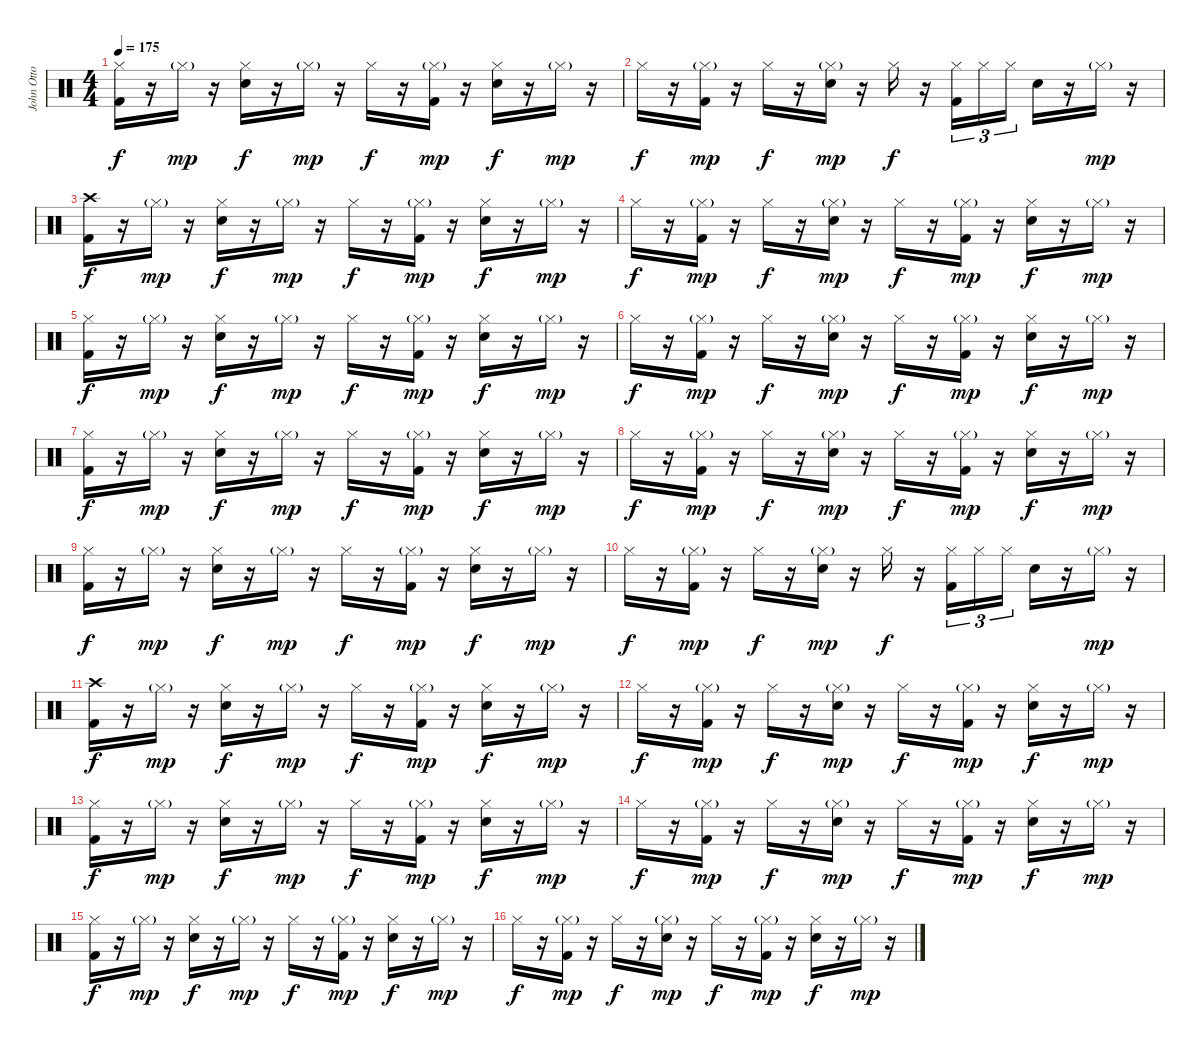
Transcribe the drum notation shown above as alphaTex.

\track ("John Otto" "John Otto") {instrument percussion}
\staff {score}
\articulation defaults
\ts (4 4)
\tempo 175
\clef neutral
\ks c
("Hi-Hat (closed)" "Kick (hit) 2").16{dy f} r.16 "Hi-Hat (closed)"{g}.16{dy mp} r.16 ("Hi-Hat (closed)" "Snare (hit) 2").16{dy f} r.16 "Hi-Hat (closed)"{g}.16{dy mp} r.16 "Hi-Hat (closed)".16{dy f} r.16 ("Hi-Hat (closed)"{g} "Kick (hit) 2").16{dy mp} r.16 ("Hi-Hat (closed)" "Snare (hit) 2").16{dy f} r.16 "Hi-Hat (closed)"{g}.16{dy mp} r.16 |
"Hi-Hat (closed)".16{dy f} r.16 ("Hi-Hat (closed)"{g} "Kick (hit) 2").16{dy mp} r.16 "Hi-Hat (closed)".16{dy f} r.16 ("Hi-Hat (closed)"{g} "Snare (hit) 2").16{dy mp} r.16 "Hi-Hat (closed)".16{dy f} r.16 ("Hi-Hat (closed)" "Kick (hit) 2").16{tu (3 2)} "Hi-Hat (closed)".16{tu (3 2)} "Hi-Hat (closed)".16{tu (3 2)} "Snare (hit) 2".16 r.16 "Hi-Hat (closed)"{g}.16{dy mp} r.16 |
("Crash high (hit)" "Kick (hit) 2").16{dy f} r.16 "Hi-Hat (closed)"{g}.16{dy mp} r.16 ("Hi-Hat (closed)" "Snare (hit) 2").16{dy f} r.16 "Hi-Hat (closed)"{g}.16{dy mp} r.16 "Hi-Hat (closed)".16{dy f} r.16 ("Hi-Hat (closed)"{g} "Kick (hit) 2").16{dy mp} r.16 ("Hi-Hat (closed)" "Snare (hit) 2").16{dy f} r.16 "Hi-Hat (closed)"{g}.16{dy mp} r.16 |
"Hi-Hat (closed)".16{dy f} r.16 ("Hi-Hat (closed)"{g} "Kick (hit) 2").16{dy mp} r.16 "Hi-Hat (closed)".16{dy f} r.16 ("Hi-Hat (closed)"{g} "Snare (hit) 2").16{dy mp} r.16 "Hi-Hat (closed)".16{dy f} r.16 ("Hi-Hat (closed)"{g} "Kick (hit) 2").16{dy mp} r.16 ("Hi-Hat (closed)" "Snare (hit) 2").16{dy f} r.16 "Hi-Hat (closed)"{g}.16{dy mp} r.16 |
("Hi-Hat (closed)" "Kick (hit) 2").16{dy f} r.16 "Hi-Hat (closed)"{g}.16{dy mp} r.16 ("Hi-Hat (closed)" "Snare (hit) 2").16{dy f} r.16 "Hi-Hat (closed)"{g}.16{dy mp} r.16 "Hi-Hat (closed)".16{dy f} r.16 ("Hi-Hat (closed)"{g} "Kick (hit) 2").16{dy mp} r.16 ("Hi-Hat (closed)" "Snare (hit) 2").16{dy f} r.16 "Hi-Hat (closed)"{g}.16{dy mp} r.16 |
"Hi-Hat (closed)".16{dy f} r.16 ("Hi-Hat (closed)"{g} "Kick (hit) 2").16{dy mp} r.16 "Hi-Hat (closed)".16{dy f} r.16 ("Hi-Hat (closed)"{g} "Snare (hit) 2").16{dy mp} r.16 "Hi-Hat (closed)".16{dy f} r.16 ("Hi-Hat (closed)"{g} "Kick (hit) 2").16{dy mp} r.16 ("Hi-Hat (closed)" "Snare (hit) 2").16{dy f} r.16 "Hi-Hat (closed)"{g}.16{dy mp} r.16 |
("Hi-Hat (closed)" "Kick (hit) 2").16{dy f} r.16 "Hi-Hat (closed)"{g}.16{dy mp} r.16 ("Hi-Hat (closed)" "Snare (hit) 2").16{dy f} r.16 "Hi-Hat (closed)"{g}.16{dy mp} r.16 "Hi-Hat (closed)".16{dy f} r.16 ("Hi-Hat (closed)"{g} "Kick (hit) 2").16{dy mp} r.16 ("Hi-Hat (closed)" "Snare (hit) 2").16{dy f} r.16 "Hi-Hat (closed)"{g}.16{dy mp} r.16 |
"Hi-Hat (closed)".16{dy f} r.16 ("Hi-Hat (closed)"{g} "Kick (hit) 2").16{dy mp} r.16 "Hi-Hat (closed)".16{dy f} r.16 ("Hi-Hat (closed)"{g} "Snare (hit) 2").16{dy mp} r.16 "Hi-Hat (closed)".16{dy f} r.16 ("Hi-Hat (closed)"{g} "Kick (hit) 2").16{dy mp} r.16 ("Hi-Hat (closed)" "Snare (hit) 2").16{dy f} r.16 "Hi-Hat (closed)"{g}.16{dy mp} r.16 |
("Hi-Hat (closed)" "Kick (hit) 2").16{dy f} r.16 "Hi-Hat (closed)"{g}.16{dy mp} r.16 ("Hi-Hat (closed)" "Snare (hit) 2").16{dy f} r.16 "Hi-Hat (closed)"{g}.16{dy mp} r.16 "Hi-Hat (closed)".16{dy f} r.16 ("Hi-Hat (closed)"{g} "Kick (hit) 2").16{dy mp} r.16 ("Hi-Hat (closed)" "Snare (hit) 2").16{dy f} r.16 "Hi-Hat (closed)"{g}.16{dy mp} r.16 |
"Hi-Hat (closed)".16{dy f} r.16 ("Hi-Hat (closed)"{g} "Kick (hit) 2").16{dy mp} r.16 "Hi-Hat (closed)".16{dy f} r.16 ("Hi-Hat (closed)"{g} "Snare (hit) 2").16{dy mp} r.16 "Hi-Hat (closed)".16{dy f} r.16 ("Hi-Hat (closed)" "Kick (hit) 2").16{tu (3 2)} "Hi-Hat (closed)".16{tu (3 2)} "Hi-Hat (closed)".16{tu (3 2)} "Snare (hit) 2".16 r.16 "Hi-Hat (closed)"{g}.16{dy mp} r.16 |
("Crash high (hit)" "Kick (hit) 2").16{dy f} r.16 "Hi-Hat (closed)"{g}.16{dy mp} r.16 ("Hi-Hat (closed)" "Snare (hit) 2").16{dy f} r.16 "Hi-Hat (closed)"{g}.16{dy mp} r.16 "Hi-Hat (closed)".16{dy f} r.16 ("Hi-Hat (closed)"{g} "Kick (hit) 2").16{dy mp} r.16 ("Hi-Hat (closed)" "Snare (hit) 2").16{dy f} r.16 "Hi-Hat (closed)"{g}.16{dy mp} r.16 |
"Hi-Hat (closed)".16{dy f} r.16 ("Hi-Hat (closed)"{g} "Kick (hit) 2").16{dy mp} r.16 "Hi-Hat (closed)".16{dy f} r.16 ("Hi-Hat (closed)"{g} "Snare (hit) 2").16{dy mp} r.16 "Hi-Hat (closed)".16{dy f} r.16 ("Hi-Hat (closed)"{g} "Kick (hit) 2").16{dy mp} r.16 ("Hi-Hat (closed)" "Snare (hit) 2").16{dy f} r.16 "Hi-Hat (closed)"{g}.16{dy mp} r.16 |
("Hi-Hat (closed)" "Kick (hit) 2").16{dy f} r.16 "Hi-Hat (closed)"{g}.16{dy mp} r.16 ("Hi-Hat (closed)" "Snare (hit) 2").16{dy f} r.16 "Hi-Hat (closed)"{g}.16{dy mp} r.16 "Hi-Hat (closed)".16{dy f} r.16 ("Hi-Hat (closed)"{g} "Kick (hit) 2").16{dy mp} r.16 ("Hi-Hat (closed)" "Snare (hit) 2").16{dy f} r.16 "Hi-Hat (closed)"{g}.16{dy mp} r.16 |
"Hi-Hat (closed)".16{dy f} r.16 ("Hi-Hat (closed)"{g} "Kick (hit) 2").16{dy mp} r.16 "Hi-Hat (closed)".16{dy f} r.16 ("Hi-Hat (closed)"{g} "Snare (hit) 2").16{dy mp} r.16 "Hi-Hat (closed)".16{dy f} r.16 ("Hi-Hat (closed)"{g} "Kick (hit) 2").16{dy mp} r.16 ("Hi-Hat (closed)" "Snare (hit) 2").16{dy f} r.16 "Hi-Hat (closed)"{g}.16{dy mp} r.16 |
("Hi-Hat (closed)" "Kick (hit) 2").16{dy f} r.16 "Hi-Hat (closed)"{g}.16{dy mp} r.16 ("Hi-Hat (closed)" "Snare (hit) 2").16{dy f} r.16 "Hi-Hat (closed)"{g}.16{dy mp} r.16 "Hi-Hat (closed)".16{dy f} r.16 ("Hi-Hat (closed)"{g} "Kick (hit) 2").16{dy mp} r.16 ("Hi-Hat (closed)" "Snare (hit) 2").16{dy f} r.16 "Hi-Hat (closed)"{g}.16{dy mp} r.16 |
"Hi-Hat (closed)".16{dy f} r.16 ("Hi-Hat (closed)"{g} "Kick (hit) 2").16{dy mp} r.16 "Hi-Hat (closed)".16{dy f} r.16 ("Hi-Hat (closed)"{g} "Snare (hit) 2").16{dy mp} r.16 "Hi-Hat (closed)".16{dy f} r.16 ("Hi-Hat (closed)"{g} "Kick (hit) 2").16{dy mp} r.16 ("Hi-Hat (closed)" "Snare (hit) 2").16{dy f} r.16 "Hi-Hat (closed)"{g}.16{dy mp} r.16
